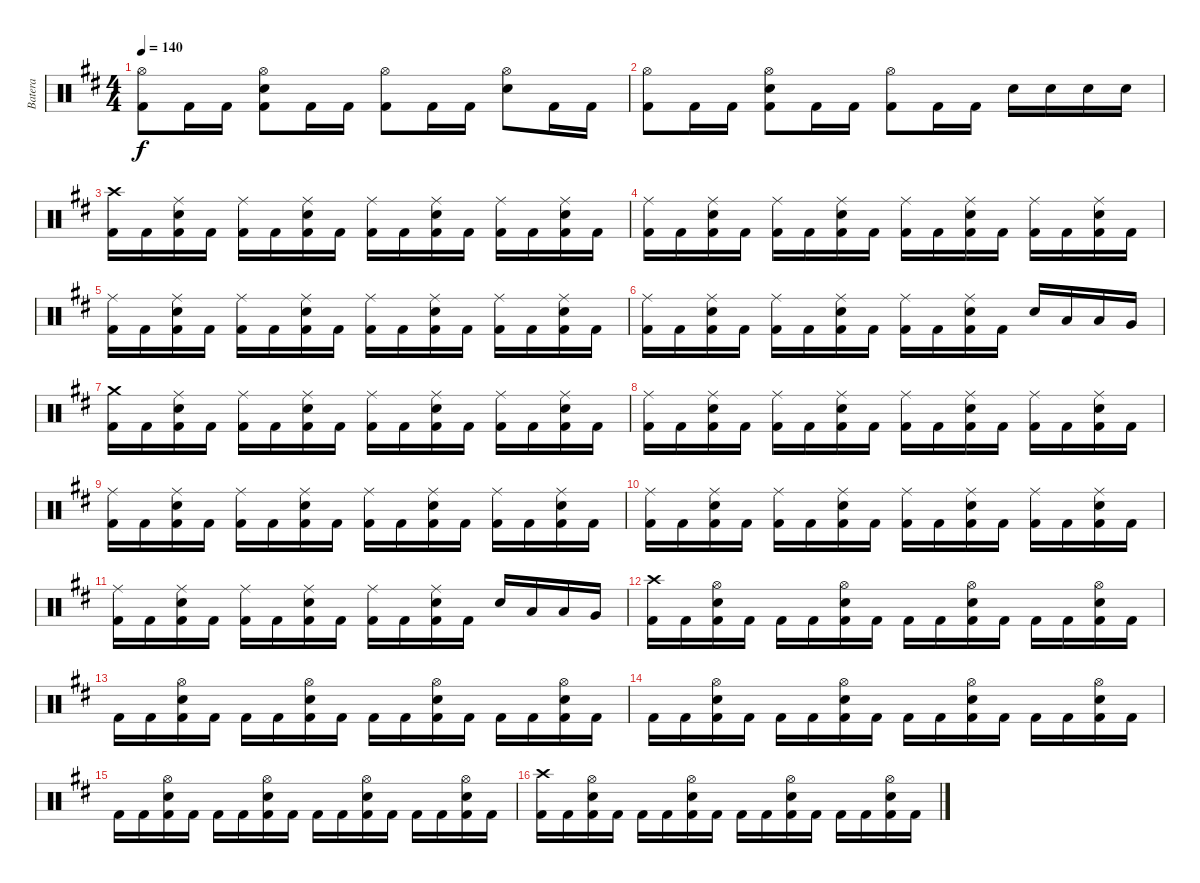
\track ("Batera" "Batera") {instrument percussion}
\staff {score}
\articulation defaults
\ts (4 4)
\tempo 140
\clef neutral
\ks bminor
("Hi-Hat (open)" "Kick (hit) 2").8{dy f} "Kick (hit) 2".16 "Kick (hit) 2".16 ("Hi-Hat (open)" "Electric Snare (hit)" "Kick (hit) 2").8 "Kick (hit) 2".16 "Kick (hit) 2".16 ("Hi-Hat (open)" "Kick (hit) 2").8 "Kick (hit) 2".16 "Kick (hit) 2".16 ("Hi-Hat (open)" "Electric Snare (hit)").8 "Kick (hit) 2".16 "Kick (hit) 2".16 |
("Hi-Hat (open)" "Kick (hit) 2").8 "Kick (hit) 2".16 "Kick (hit) 2".16 ("Hi-Hat (open)" "Electric Snare (hit)" "Kick (hit) 2").8 "Kick (hit) 2".16 "Kick (hit) 2".16 ("Hi-Hat (open)" "Kick (hit) 2").8 "Kick (hit) 2".16 "Kick (hit) 2".16 "Electric Snare (hit)".16 "Electric Snare (hit)".16 "Electric Snare (hit)".16 "Electric Snare (hit)".16 |
("Crash high (hit)" "Kick (hit) 2").16 "Kick (hit) 2".16 ("Ride (middle)" "Electric Snare (hit)" "Kick (hit) 2").16 "Kick (hit) 2".16 ("Ride (middle)" "Kick (hit) 2").16 "Kick (hit) 2".16 ("Ride (middle)" "Electric Snare (hit)" "Kick (hit) 2").16 "Kick (hit) 2".16 ("Ride (middle)" "Kick (hit) 2").16 "Kick (hit) 2".16 ("Ride (middle)" "Electric Snare (hit)" "Kick (hit) 2").16 "Kick (hit) 2".16 ("Ride (middle)" "Kick (hit) 2").16 "Kick (hit) 2".16 ("Ride (middle)" "Electric Snare (hit)" "Kick (hit) 2").16 "Kick (hit) 2".16 |
("Ride (middle)" "Kick (hit) 2").16 "Kick (hit) 2".16 ("Ride (middle)" "Electric Snare (hit)" "Kick (hit) 2").16 "Kick (hit) 2".16 ("Ride (middle)" "Kick (hit) 2").16 "Kick (hit) 2".16 ("Ride (middle)" "Electric Snare (hit)" "Kick (hit) 2").16 "Kick (hit) 2".16 ("Ride (middle)" "Kick (hit) 2").16 "Kick (hit) 2".16 ("Ride (middle)" "Electric Snare (hit)" "Kick (hit) 2").16 "Kick (hit) 2".16 ("Ride (middle)" "Kick (hit) 2").16 "Kick (hit) 2".16 ("Ride (middle)" "Electric Snare (hit)" "Kick (hit) 2").16 "Kick (hit) 2".16 |
("Ride (middle)" "Kick (hit) 2").16 "Kick (hit) 2".16 ("Ride (middle)" "Electric Snare (hit)" "Kick (hit) 2").16 "Kick (hit) 2".16 ("Ride (middle)" "Kick (hit) 2").16 "Kick (hit) 2".16 ("Ride (middle)" "Electric Snare (hit)" "Kick (hit) 2").16 "Kick (hit) 2".16 ("Ride (middle)" "Kick (hit) 2").16 "Kick (hit) 2".16 ("Ride (middle)" "Electric Snare (hit)" "Kick (hit) 2").16 "Kick (hit) 2".16 ("Ride (middle)" "Kick (hit) 2").16 "Kick (hit) 2".16 ("Ride (middle)" "Electric Snare (hit)" "Kick (hit) 2").16 "Kick (hit) 2".16 |
("Ride (middle)" "Kick (hit) 2").16 "Kick (hit) 2".16 ("Ride (middle)" "Electric Snare (hit)" "Kick (hit) 2").16 "Kick (hit) 2".16 ("Ride (middle)" "Kick (hit) 2").16 "Kick (hit) 2".16 ("Ride (middle)" "Electric Snare (hit)" "Kick (hit) 2").16 "Kick (hit) 2".16 ("Ride (middle)" "Kick (hit) 2").16 "Kick (hit) 2".16 ("Ride (middle)" "Electric Snare (hit)" "Kick (hit) 2").16 "Kick (hit) 2".16 "Electric Snare (hit)".16 "Low Floor Tom (hit)".16 "Low Tom (hit)".16 "Very Low Tom (hit)".16 |
("Crash medium (hit)" "Kick (hit) 2").16 "Kick (hit) 2".16 ("Ride (middle)" "Electric Snare (hit)" "Kick (hit) 2").16 "Kick (hit) 2".16 ("Ride (middle)" "Kick (hit) 2").16 "Kick (hit) 2".16 ("Ride (middle)" "Electric Snare (hit)" "Kick (hit) 2").16 "Kick (hit) 2".16 ("Ride (middle)" "Kick (hit) 2").16 "Kick (hit) 2".16 ("Ride (middle)" "Electric Snare (hit)" "Kick (hit) 2").16 "Kick (hit) 2".16 ("Ride (middle)" "Kick (hit) 2").16 "Kick (hit) 2".16 ("Ride (middle)" "Electric Snare (hit)" "Kick (hit) 2").16 "Kick (hit) 2".16 |
("Ride (middle)" "Kick (hit) 2").16 "Kick (hit) 2".16 ("Ride (middle)" "Electric Snare (hit)" "Kick (hit) 2").16 "Kick (hit) 2".16 ("Ride (middle)" "Kick (hit) 2").16 "Kick (hit) 2".16 ("Ride (middle)" "Electric Snare (hit)" "Kick (hit) 2").16 "Kick (hit) 2".16 ("Ride (middle)" "Kick (hit) 2").16 "Kick (hit) 2".16 ("Ride (middle)" "Electric Snare (hit)" "Kick (hit) 2").16 "Kick (hit) 2".16 ("Ride (middle)" "Kick (hit) 2").16 "Kick (hit) 2".16 ("Ride (middle)" "Electric Snare (hit)" "Kick (hit) 2").16 "Kick (hit) 2".16 |
("Ride (middle)" "Kick (hit) 2").16 "Kick (hit) 2".16 ("Ride (middle)" "Electric Snare (hit)" "Kick (hit) 2").16 "Kick (hit) 2".16 ("Ride (middle)" "Kick (hit) 2").16 "Kick (hit) 2".16 ("Ride (middle)" "Electric Snare (hit)" "Kick (hit) 2").16 "Kick (hit) 2".16 ("Ride (middle)" "Kick (hit) 2").16 "Kick (hit) 2".16 ("Ride (middle)" "Electric Snare (hit)" "Kick (hit) 2").16 "Kick (hit) 2".16 ("Ride (middle)" "Kick (hit) 2").16 "Kick (hit) 2".16 ("Ride (middle)" "Electric Snare (hit)" "Kick (hit) 2").16 "Kick (hit) 2".16 |
("Ride (middle)" "Kick (hit) 2").16 "Kick (hit) 2".16 ("Ride (middle)" "Electric Snare (hit)" "Kick (hit) 2").16 "Kick (hit) 2".16 ("Ride (middle)" "Kick (hit) 2").16 "Kick (hit) 2".16 ("Ride (middle)" "Electric Snare (hit)" "Kick (hit) 2").16 "Kick (hit) 2".16 ("Ride (middle)" "Kick (hit) 2").16 "Kick (hit) 2".16 ("Ride (middle)" "Electric Snare (hit)" "Kick (hit) 2").16 "Kick (hit) 2".16 ("Ride (middle)" "Kick (hit) 2").16 "Kick (hit) 2".16 ("Ride (middle)" "Electric Snare (hit)" "Kick (hit) 2").16 "Kick (hit) 2".16 |
("Ride (middle)" "Kick (hit) 2").16 "Kick (hit) 2".16 ("Ride (middle)" "Electric Snare (hit)" "Kick (hit) 2").16 "Kick (hit) 2".16 ("Ride (middle)" "Kick (hit) 2").16 "Kick (hit) 2".16 ("Ride (middle)" "Electric Snare (hit)" "Kick (hit) 2").16 "Kick (hit) 2".16 ("Ride (middle)" "Kick (hit) 2").16 "Kick (hit) 2".16 ("Ride (middle)" "Electric Snare (hit)" "Kick (hit) 2").16 "Kick (hit) 2".16 "Electric Snare (hit)".16 "Low Floor Tom (hit)".16 "Low Tom (hit)".16 "Very Low Tom (hit)".16 |
("Crash high (hit)" "Kick (hit) 2").16 "Kick (hit) 2".16 ("Hi-Hat (open)" "Electric Snare (hit)" "Kick (hit) 2").16 "Kick (hit) 2".16 "Kick (hit) 2".16 "Kick (hit) 2".16 ("Hi-Hat (open)" "Electric Snare (hit)" "Kick (hit) 2").16 "Kick (hit) 2".16 "Kick (hit) 2".16 "Kick (hit) 2".16 ("Hi-Hat (open)" "Electric Snare (hit)" "Kick (hit) 2").16 "Kick (hit) 2".16 "Kick (hit) 2".16 "Kick (hit) 2".16 ("Hi-Hat (open)" "Electric Snare (hit)" "Kick (hit) 2").16 "Kick (hit) 2".16 |
"Kick (hit) 2".16 "Kick (hit) 2".16 ("Hi-Hat (open)" "Electric Snare (hit)" "Kick (hit) 2").16 "Kick (hit) 2".16 "Kick (hit) 2".16 "Kick (hit) 2".16 ("Hi-Hat (open)" "Electric Snare (hit)" "Kick (hit) 2").16 "Kick (hit) 2".16 "Kick (hit) 2".16 "Kick (hit) 2".16 ("Hi-Hat (open)" "Electric Snare (hit)" "Kick (hit) 2").16 "Kick (hit) 2".16 "Kick (hit) 2".16 "Kick (hit) 2".16 ("Hi-Hat (open)" "Electric Snare (hit)" "Kick (hit) 2").16 "Kick (hit) 2".16 |
"Kick (hit) 2".16 "Kick (hit) 2".16 ("Hi-Hat (open)" "Electric Snare (hit)" "Kick (hit) 2").16 "Kick (hit) 2".16 "Kick (hit) 2".16 "Kick (hit) 2".16 ("Hi-Hat (open)" "Electric Snare (hit)" "Kick (hit) 2").16 "Kick (hit) 2".16 "Kick (hit) 2".16 "Kick (hit) 2".16 ("Hi-Hat (open)" "Electric Snare (hit)" "Kick (hit) 2").16 "Kick (hit) 2".16 "Kick (hit) 2".16 "Kick (hit) 2".16 ("Hi-Hat (open)" "Electric Snare (hit)" "Kick (hit) 2").16 "Kick (hit) 2".16 |
"Kick (hit) 2".16 "Kick (hit) 2".16 ("Hi-Hat (open)" "Electric Snare (hit)" "Kick (hit) 2").16 "Kick (hit) 2".16 "Kick (hit) 2".16 "Kick (hit) 2".16 ("Hi-Hat (open)" "Electric Snare (hit)" "Kick (hit) 2").16 "Kick (hit) 2".16 "Kick (hit) 2".16 "Kick (hit) 2".16 ("Hi-Hat (open)" "Electric Snare (hit)" "Kick (hit) 2").16 "Kick (hit) 2".16 "Kick (hit) 2".16 "Kick (hit) 2".16 ("Hi-Hat (open)" "Electric Snare (hit)" "Kick (hit) 2").16 "Kick (hit) 2".16 |
("Crash high (hit)" "Kick (hit) 2").16 "Kick (hit) 2".16 ("Hi-Hat (open)" "Electric Snare (hit)" "Kick (hit) 2").16 "Kick (hit) 2".16 "Kick (hit) 2".16 "Kick (hit) 2".16 ("Hi-Hat (open)" "Electric Snare (hit)" "Kick (hit) 2").16 "Kick (hit) 2".16 "Kick (hit) 2".16 "Kick (hit) 2".16 ("Hi-Hat (open)" "Electric Snare (hit)" "Kick (hit) 2").16 "Kick (hit) 2".16 "Kick (hit) 2".16 "Kick (hit) 2".16 ("Hi-Hat (open)" "Electric Snare (hit)" "Kick (hit) 2").16 "Kick (hit) 2".16
